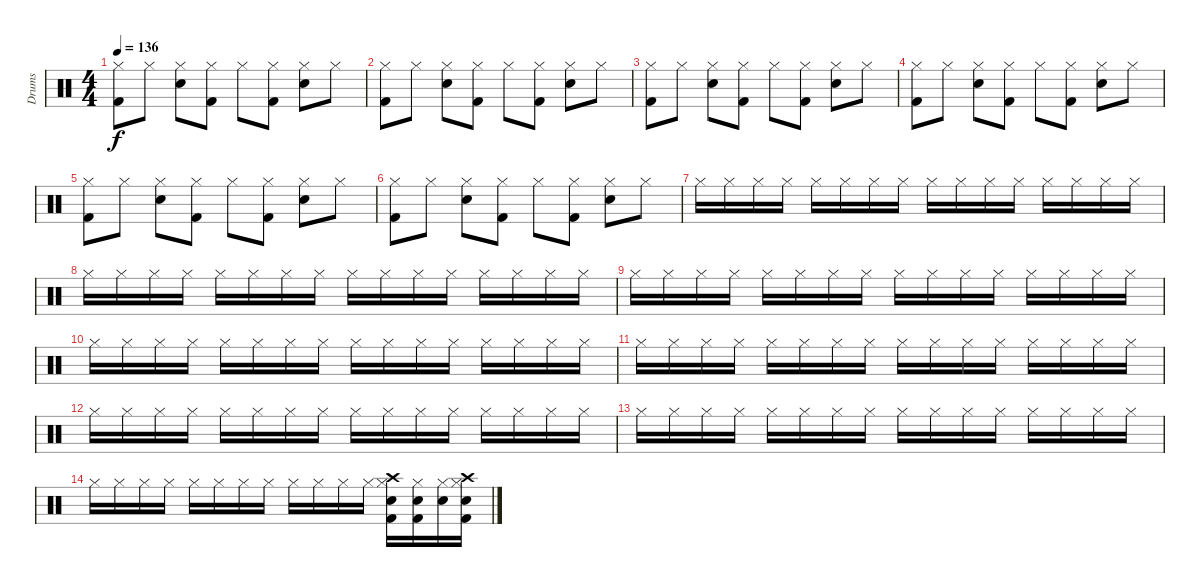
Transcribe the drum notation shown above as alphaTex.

\track ("Drums" "Drums") {instrument percussion}
\staff {score}
\articulation defaults
\ts (4 4)
\tempo 136
\clef neutral
\ks c
("Hi-Hat (closed)" "Kick (hit) 2").8{dy f} "Hi-Hat (closed)".8 ("Hi-Hat (closed)" "Snare (hit) 2").8 ("Hi-Hat (closed)" "Kick (hit) 2").8 "Hi-Hat (closed)".8 ("Hi-Hat (closed)" "Kick (hit) 2").8 ("Hi-Hat (closed)" "Snare (hit) 2").8 "Hi-Hat (closed)".8 |
("Hi-Hat (closed)" "Kick (hit) 2").8 "Hi-Hat (closed)".8 ("Hi-Hat (closed)" "Snare (hit) 2").8 ("Hi-Hat (closed)" "Kick (hit) 2").8 "Hi-Hat (closed)".8 ("Hi-Hat (closed)" "Kick (hit) 2").8 ("Hi-Hat (closed)" "Snare (hit) 2").8 "Hi-Hat (closed)".8 |
("Hi-Hat (closed)" "Kick (hit) 2").8 "Hi-Hat (closed)".8 ("Hi-Hat (closed)" "Snare (hit) 2").8 ("Hi-Hat (closed)" "Kick (hit) 2").8 "Hi-Hat (closed)".8 ("Hi-Hat (closed)" "Kick (hit) 2").8 ("Hi-Hat (closed)" "Snare (hit) 2").8 "Hi-Hat (closed)".8 |
("Hi-Hat (closed)" "Kick (hit) 2").8 "Hi-Hat (closed)".8 ("Hi-Hat (closed)" "Snare (hit) 2").8 ("Hi-Hat (closed)" "Kick (hit) 2").8 "Hi-Hat (closed)".8 ("Hi-Hat (closed)" "Kick (hit) 2").8 ("Hi-Hat (closed)" "Snare (hit) 2").8 "Hi-Hat (closed)".8 |
("Hi-Hat (closed)" "Kick (hit) 2").8 "Hi-Hat (closed)".8 ("Hi-Hat (closed)" "Snare (hit) 2").8 ("Hi-Hat (closed)" "Kick (hit) 2").8 "Hi-Hat (closed)".8 ("Hi-Hat (closed)" "Kick (hit) 2").8 ("Hi-Hat (closed)" "Snare (hit) 2").8 "Hi-Hat (closed)".8 |
("Hi-Hat (closed)" "Kick (hit) 2").8 "Hi-Hat (closed)".8 ("Hi-Hat (closed)" "Snare (hit) 2").8 ("Hi-Hat (closed)" "Kick (hit) 2").8 "Hi-Hat (closed)".8 ("Hi-Hat (closed)" "Kick (hit) 2").8 ("Hi-Hat (closed)" "Snare (hit) 2").8 "Hi-Hat (closed)".8 |
"Hi-Hat (closed)".16 "Hi-Hat (closed)".16 "Hi-Hat (closed)".16 "Hi-Hat (closed)".16 "Hi-Hat (closed)".16 "Hi-Hat (closed)".16 "Hi-Hat (closed)".16 "Hi-Hat (closed)".16 "Hi-Hat (closed)".16 "Hi-Hat (closed)".16 "Hi-Hat (closed)".16 "Hi-Hat (closed)".16 "Hi-Hat (closed)".16 "Hi-Hat (closed)".16 "Hi-Hat (closed)".16 "Hi-Hat (closed)".16 |
"Hi-Hat (closed)".16 "Hi-Hat (closed)".16 "Hi-Hat (closed)".16 "Hi-Hat (closed)".16 "Hi-Hat (closed)".16 "Hi-Hat (closed)".16 "Hi-Hat (closed)".16 "Hi-Hat (closed)".16 "Hi-Hat (closed)".16 "Hi-Hat (closed)".16 "Hi-Hat (closed)".16 "Hi-Hat (closed)".16 "Hi-Hat (closed)".16 "Hi-Hat (closed)".16 "Hi-Hat (closed)".16 "Hi-Hat (closed)".16 |
"Hi-Hat (closed)".16 "Hi-Hat (closed)".16 "Hi-Hat (closed)".16 "Hi-Hat (closed)".16 "Hi-Hat (closed)".16 "Hi-Hat (closed)".16 "Hi-Hat (closed)".16 "Hi-Hat (closed)".16 "Hi-Hat (closed)".16 "Hi-Hat (closed)".16 "Hi-Hat (closed)".16 "Hi-Hat (closed)".16 "Hi-Hat (closed)".16 "Hi-Hat (closed)".16 "Hi-Hat (closed)".16 "Hi-Hat (closed)".16 |
"Hi-Hat (closed)".16 "Hi-Hat (closed)".16 "Hi-Hat (closed)".16 "Hi-Hat (closed)".16 "Hi-Hat (closed)".16 "Hi-Hat (closed)".16 "Hi-Hat (closed)".16 "Hi-Hat (closed)".16 "Hi-Hat (closed)".16 "Hi-Hat (closed)".16 "Hi-Hat (closed)".16 "Hi-Hat (closed)".16 "Hi-Hat (closed)".16 "Hi-Hat (closed)".16 "Hi-Hat (closed)".16 "Hi-Hat (closed)".16 |
"Hi-Hat (closed)".16 "Hi-Hat (closed)".16 "Hi-Hat (closed)".16 "Hi-Hat (closed)".16 "Hi-Hat (closed)".16 "Hi-Hat (closed)".16 "Hi-Hat (closed)".16 "Hi-Hat (closed)".16 "Hi-Hat (closed)".16 "Hi-Hat (closed)".16 "Hi-Hat (closed)".16 "Hi-Hat (closed)".16 "Hi-Hat (closed)".16 "Hi-Hat (closed)".16 "Hi-Hat (closed)".16 "Hi-Hat (closed)".16 |
"Hi-Hat (closed)".16 "Hi-Hat (closed)".16 "Hi-Hat (closed)".16 "Hi-Hat (closed)".16 "Hi-Hat (closed)".16 "Hi-Hat (closed)".16 "Hi-Hat (closed)".16 "Hi-Hat (closed)".16 "Hi-Hat (closed)".16 "Hi-Hat (closed)".16 "Hi-Hat (closed)".16 "Hi-Hat (closed)".16 "Hi-Hat (closed)".16 "Hi-Hat (closed)".16 "Hi-Hat (closed)".16 "Hi-Hat (closed)".16 |
"Hi-Hat (closed)".16 "Hi-Hat (closed)".16 "Hi-Hat (closed)".16 "Hi-Hat (closed)".16 "Hi-Hat (closed)".16 "Hi-Hat (closed)".16 "Hi-Hat (closed)".16 "Hi-Hat (closed)".16 "Hi-Hat (closed)".16 "Hi-Hat (closed)".16 "Hi-Hat (closed)".16 "Hi-Hat (closed)".16 "Hi-Hat (closed)".16 "Hi-Hat (closed)".16 "Hi-Hat (closed)".16 "Hi-Hat (closed)".16 |
"Hi-Hat (closed)".16 "Hi-Hat (closed)".16 "Hi-Hat (closed)".16 "Hi-Hat (closed)".16 "Hi-Hat (closed)".16 "Hi-Hat (closed)".16 "Hi-Hat (closed)".16 "Hi-Hat (closed)".16 "Hi-Hat (closed)".16 "Hi-Hat (closed)".16 "Hi-Hat (closed)".16 "Hi-Hat (closed)".16 ("Crash high (hit)" "Hi-Hat (closed)" "Snare (hit) 2" "Kick (hit) 2").16 ("Hi-Hat (closed)" "Snare (hit) 2" "Kick (hit) 2").16 ("Hi-Hat (closed)" "Snare (hit) 2").16 ("Crash high (hit)" "Hi-Hat (closed)" "Snare (hit) 2" "Kick (hit) 2").16
